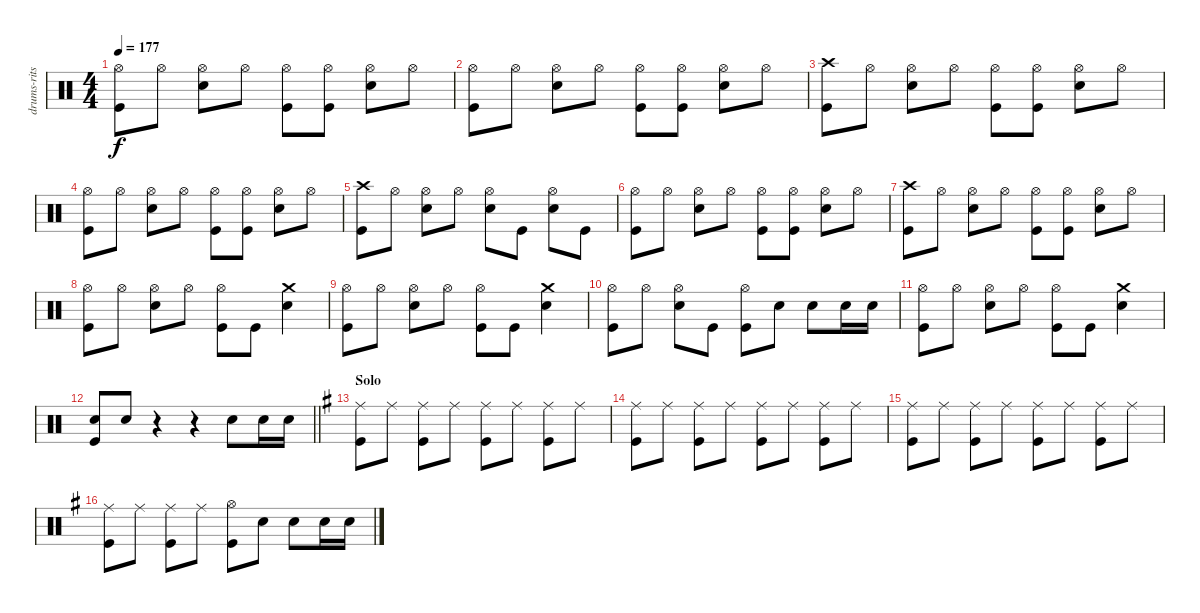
\track ("drums-ritsu takana" "drums-rits") {instrument percussion}
\staff {score}
\articulation defaults
\ts (4 4)
\tempo 177
\clef neutral
\ks c
("Kick (hit)" "Hi-Hat (open)").8{dy f} "Hi-Hat (open)".8 ("Hi-Hat (open)" "Snare (hit) 2").8 "Hi-Hat (open)".8 ("Hi-Hat (open)" "Kick (hit)").8 ("Kick (hit)" "Hi-Hat (open)").8 ("Hi-Hat (open)" "Snare (hit) 2").8 "Hi-Hat (open)".8 |
("Kick (hit)" "Hi-Hat (open)").8 "Hi-Hat (open)".8 ("Hi-Hat (open)" "Snare (hit) 2").8 "Hi-Hat (open)".8 ("Hi-Hat (open)" "Kick (hit)").8 ("Kick (hit)" "Hi-Hat (open)").8 ("Hi-Hat (open)" "Snare (hit) 2").8 "Hi-Hat (open)".8 |
("Kick (hit)" "Crash high (hit)").8 "Hi-Hat (open)".8 ("Hi-Hat (open)" "Snare (hit) 2").8 "Hi-Hat (open)".8 ("Hi-Hat (open)" "Kick (hit)").8 ("Kick (hit)" "Hi-Hat (open)").8 ("Hi-Hat (open)" "Snare (hit) 2").8 "Hi-Hat (open)".8 |
("Kick (hit)" "Hi-Hat (open)").8 "Hi-Hat (open)".8 ("Hi-Hat (open)" "Snare (hit) 2").8 "Hi-Hat (open)".8 ("Hi-Hat (open)" "Kick (hit)").8 ("Kick (hit)" "Hi-Hat (open)").8 ("Hi-Hat (open)" "Snare (hit) 2").8 "Hi-Hat (open)".8 |
("Kick (hit)" "Crash high (hit)").8 "Hi-Hat (open)".8 ("Hi-Hat (open)" "Snare (hit) 2").8 "Hi-Hat (open)".8 ("Hi-Hat (open)" "Snare (hit) 2").8 "Kick (hit)".8 ("Hi-Hat (open)" "Snare (hit) 2").8 "Kick (hit)".8 |
("Kick (hit)" "Hi-Hat (open)").8 "Hi-Hat (open)".8 ("Hi-Hat (open)" "Snare (hit) 2").8 "Hi-Hat (open)".8 ("Hi-Hat (open)" "Kick (hit)").8 ("Kick (hit)" "Hi-Hat (open)").8 ("Hi-Hat (open)" "Snare (hit) 2").8 "Hi-Hat (open)".8 |
("Kick (hit)" "Crash high (hit)").8 "Hi-Hat (open)".8 ("Hi-Hat (open)" "Snare (hit) 2").8 "Hi-Hat (open)".8 ("Hi-Hat (open)" "Kick (hit)").8 ("Kick (hit)" "Hi-Hat (open)").8 ("Hi-Hat (open)" "Snare (hit) 2").8 "Hi-Hat (open)".8 |
("Kick (hit)" "Hi-Hat (open)").8 "Hi-Hat (open)".8 ("Hi-Hat (open)" "Snare (hit) 2").8 "Hi-Hat (open)".8 ("Hi-Hat (open)" "Kick (hit)").8 "Kick (hit)".8 ("Crash medium (hit)" "Snare (hit) 2").4 |
("Kick (hit)" "Hi-Hat (open)").8 "Hi-Hat (open)".8 ("Hi-Hat (open)" "Snare (hit) 2").8 "Hi-Hat (open)".8 ("Hi-Hat (open)" "Kick (hit)").8 "Kick (hit)".8 ("Crash medium (hit)" "Snare (hit) 2").4 |
("Kick (hit)" "Hi-Hat (open)").8 "Hi-Hat (open)".8 ("Hi-Hat (open)" "Snare (hit) 2").8 "Kick (hit)".8 ("Hi-Hat (open)" "Kick (hit)").8 "Snare (hit) 2".8 "Snare (hit) 2".8 "Snare (hit) 2".16 "Snare (hit) 2".16 |
("Kick (hit)" "Hi-Hat (open)").8 "Hi-Hat (open)".8 ("Hi-Hat (open)" "Snare (hit) 2").8 "Hi-Hat (open)".8 ("Hi-Hat (open)" "Kick (hit)").8 "Kick (hit)".8 ("Crash medium (hit)" "Snare (hit) 2").4 |
\barLineRight lightlight
("Snare (hit) 2" "Kick (hit)").8 "Snare (hit) 2".8 r.4 r.4 "Snare (hit) 2".8 "Snare (hit) 2".16 "Snare (hit) 2".16 |
\section ("" "Solo")
\ks eminor
("Kick (hit)" "Ride (middle)").8 "Ride (middle)".8 ("Kick (hit)" "Ride (middle)").8 "Ride (middle)".8 ("Kick (hit)" "Ride (middle)").8 "Ride (middle)".8 ("Kick (hit)" "Ride (middle)").8 "Ride (middle)".8 |
("Kick (hit)" "Ride (middle)").8 "Ride (middle)".8 ("Kick (hit)" "Ride (middle)").8 "Ride (middle)".8 ("Kick (hit)" "Ride (middle)").8 "Ride (middle)".8 ("Kick (hit)" "Ride (middle)").8 "Ride (middle)".8 |
("Kick (hit)" "Ride (middle)").8 "Ride (middle)".8 ("Kick (hit)" "Ride (middle)").8 "Ride (middle)".8 ("Kick (hit)" "Ride (middle)").8 "Ride (middle)".8 ("Kick (hit)" "Ride (middle)").8 "Ride (middle)".8 |
("Kick (hit)" "Ride (middle)").8 "Ride (middle)".8 ("Kick (hit)" "Ride (middle)").8 "Ride (middle)".8 ("Hi-Hat (open)" "Kick (hit)").8 "Snare (hit) 2".8 "Snare (hit) 2".8 "Snare (hit) 2".16 "Snare (hit) 2".16
